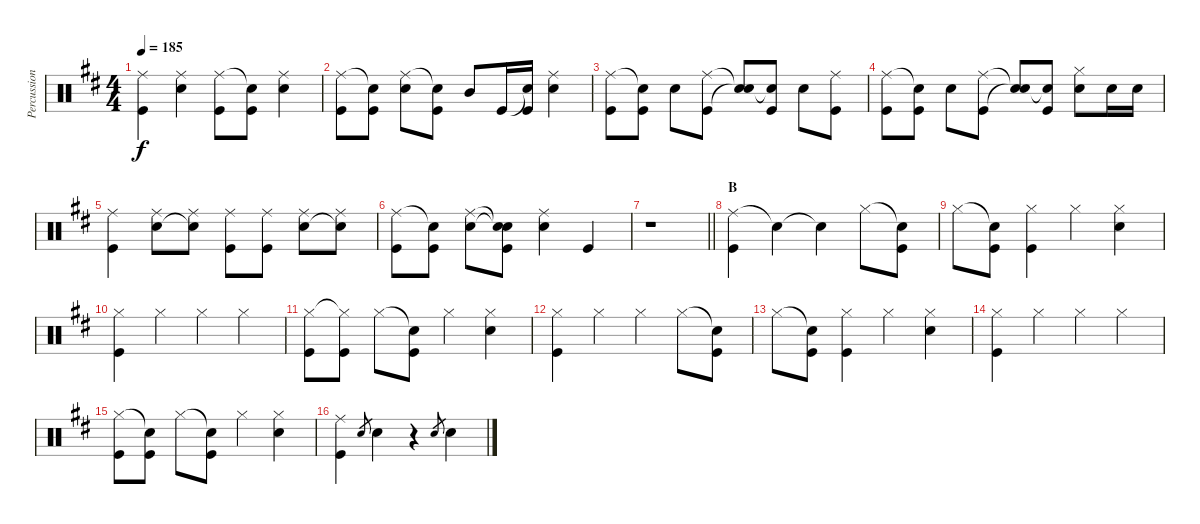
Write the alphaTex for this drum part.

\track ("Percussion" "Percussion") {instrument percussion}
\staff {score}
\articulation defaults
\ts (4 4)
\tempo 185
\clef neutral
\ks d
("Ride (middle)" "Kick (hit)").4{dy f} ("Ride (middle)" "Snare (hit) 2").4 ("Ride (middle)" "Kick (hit)").8 ("Snare (hit)"{t} "Kick (hit)").8 ("Ride (middle)" "Snare (hit) 2").4 |
("Ride (middle)" "Kick (hit)").8 ("Snare (hit)"{t} "Kick (hit)").8 ("Ride (middle)" "Snare (hit) 2").8 ("Snare (hit)"{t} "Kick (hit)").8 "Mid Tom (hit)".8 "Kick (hit)".16 ("Snare (hit)"{t} "Kick (hit)").16 ("Ride (middle)" "Snare (hit) 2").4 |
("Ride (middle)" "Kick (hit)").8 ("Snare (hit)"{t} "Kick (hit)").8 "Snare (hit) 2".8 ("Ride (middle)" "Kick (hit)").8 ("Snare (hit)"{t} "Snare (hit)"{t}).8 ("Snare (hit)"{t} "Kick (hit)").8 "Snare (hit) 2".8 ("Ride (middle)" "Kick (hit)").8 |
("Ride (middle)" "Kick (hit)").8 ("Snare (hit)"{t} "Kick (hit)").8 "Snare (hit) 2".8 ("Ride (middle)" "Kick (hit)").8 ("Snare (hit)"{t} "Snare (hit)"{t}).8 ("Snare (hit)"{t} "Kick (hit)").8 ("Hi-Hat (closed)" "Snare (hit) 2").8 "Snare (hit) 2".16 "Snare (hit) 2".16 |
("Ride (middle)" "Kick (hit)").4 ("Ride (middle)" "Snare (hit) 2").8 ("Ride (middle)" "Snare (hit)"{t}).8 ("Ride (middle)" "Kick (hit)").8 ("Ride (middle)" "Kick (hit)").8 ("Ride (middle)" "Snare (hit) 2").8 ("Ride (middle)" "Snare (hit)"{t}).8 |
("Ride (middle)" "Kick (hit)").8 ("Snare (hit)"{t} "Kick (hit)").8 ("Ride (middle)" "Snare (hit) 2").8 ("Snare (hit)"{t} "Snare (hit)"{t} "Kick (hit)").8 ("Ride (middle)" "Snare (hit) 2").4 "Kick (hit)".4 |
\barLineRight lightlight
r.1 |
\section ("" "B")
("Ride (middle)" "Kick (hit)").4 "Snare (hit)"{t}.4 "Snare (hit)"{t}.4 "Hi-Hat (closed)".8 ("Snare (hit)"{t} "Kick (hit)").8 |
"Hi-Hat (closed)".8 ("Snare (hit)"{t} "Kick (hit)").8 ("Hi-Hat (closed)" "Kick (hit)").4 "Hi-Hat (closed)".4 ("Hi-Hat (closed)" "Snare (hit) 2").4 |
("Hi-Hat (closed)" "Kick (hit)").4 "Hi-Hat (closed)".4 "Hi-Hat (closed)".4 "Hi-Hat (closed)".4 |
("Hi-Hat (closed)" "Kick (hit)").8 ("Hi-Hat (closed)"{t} "Kick (hit)").8 "Hi-Hat (closed)".8 ("Snare (hit)"{t} "Kick (hit)").8 "Hi-Hat (closed)".4 ("Hi-Hat (closed)" "Snare (hit) 2").4 |
("Hi-Hat (closed)" "Kick (hit)").4 "Hi-Hat (closed)".4 "Hi-Hat (closed)".4 "Hi-Hat (closed)".8 ("Snare (hit)"{t} "Kick (hit)").8 |
"Hi-Hat (closed)".8 ("Snare (hit)"{t} "Kick (hit)").8 ("Hi-Hat (closed)" "Kick (hit)").4 "Hi-Hat (closed)".4 ("Hi-Hat (closed)" "Snare (hit) 2").4 |
("Hi-Hat (closed)" "Kick (hit)").4 "Hi-Hat (closed)".4 "Hi-Hat (closed)".4 "Hi-Hat (closed)".4 |
("Hi-Hat (closed)" "Kick (hit)").8 ("Snare (hit)"{t} "Kick (hit)").8 "Hi-Hat (closed)".8 ("Snare (hit)"{t} "Kick (hit)").8 "Hi-Hat (closed)".4 ("Hi-Hat (closed)" "Snare (hit) 2").4 |
("Ride (middle)" "Kick (hit)").4 "Snare (hit) 2".8{gr} "Snare (hit) 2".4 r.4 "Snare (hit) 2".8{gr} "Snare (hit) 2".4
